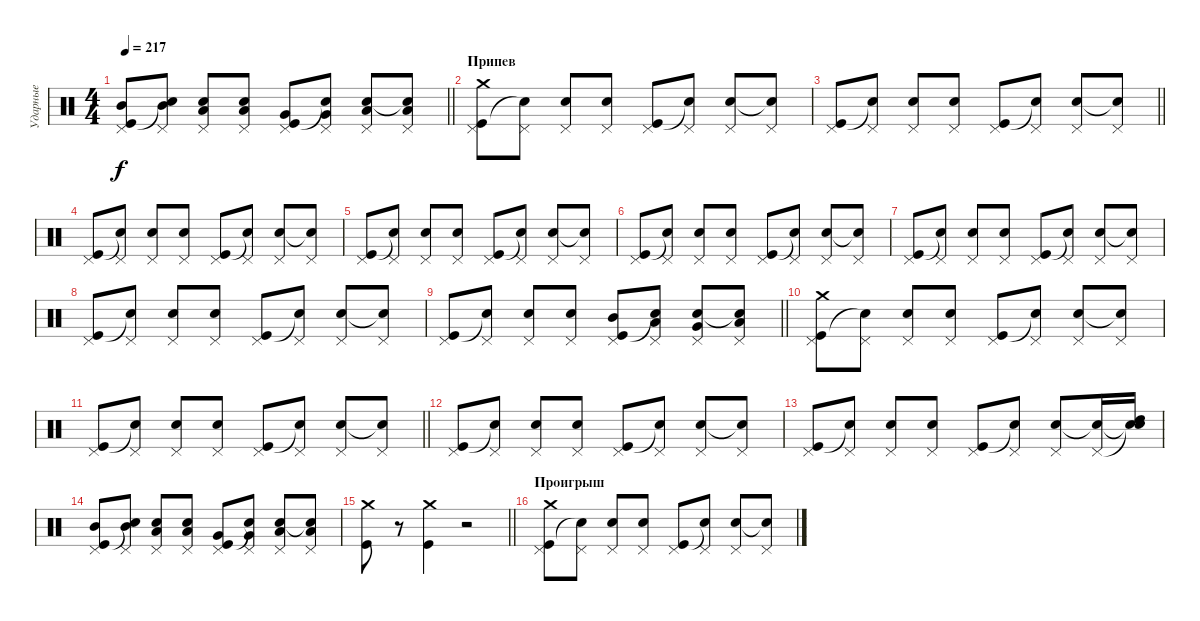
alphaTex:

\track ("Ударные" "Ударные") {instrument percussion}
\staff {score}
\articulation defaults
\ts (4 4)
\tempo 217
\clef neutral
\barLineRight lightlight
\ks c
("Pedal Hi-Hat (hit)" "Kick (hit)" "Mid Tom (hit)").8{dy f} ("Pedal Hi-Hat (hit)" "Snare (hit)"{t} "Mid Tom (hit)").8 ("Pedal Hi-Hat (hit)" "Snare (hit) 2" "Low Tom (hit)").8 ("Pedal Hi-Hat (hit)" "Snare (hit) 2" "Low Tom (hit)").8 ("Pedal Hi-Hat (hit)" "Kick (hit)" "Very Low Tom (hit)").8 ("Pedal Hi-Hat (hit)" "Snare (hit)"{t} "Very Low Tom (hit)").8 ("Pedal Hi-Hat (hit)" "Snare (hit) 2" "Low Floor Tom (hit)").8 ("Pedal Hi-Hat (hit)" "Snare (hit)"{t} "Low Floor Tom (hit)").8 |
\section ("" "Припев")
("Pedal Hi-Hat (hit)" "Kick (hit)" "Crash medium (hit)").8 ("Pedal Hi-Hat (hit)" "Snare (hit)"{t}).8 ("Pedal Hi-Hat (hit)" "Snare (hit) 2").8 ("Pedal Hi-Hat (hit)" "Snare (hit) 2").8 ("Pedal Hi-Hat (hit)" "Kick (hit)").8 ("Pedal Hi-Hat (hit)" "Snare (hit)"{t}).8 ("Pedal Hi-Hat (hit)" "Snare (hit) 2").8 ("Pedal Hi-Hat (hit)" "Snare (hit)"{t}).8 |
\barLineRight lightlight
("Pedal Hi-Hat (hit)" "Kick (hit)").8 ("Pedal Hi-Hat (hit)" "Snare (hit)"{t}).8 ("Pedal Hi-Hat (hit)" "Snare (hit) 2").8 ("Pedal Hi-Hat (hit)" "Snare (hit) 2").8 ("Pedal Hi-Hat (hit)" "Kick (hit)").8 ("Pedal Hi-Hat (hit)" "Snare (hit)"{t}).8 ("Pedal Hi-Hat (hit)" "Snare (hit) 2").8 ("Pedal Hi-Hat (hit)" "Snare (hit)"{t}).8 |
("Pedal Hi-Hat (hit)" "Kick (hit)").8 ("Pedal Hi-Hat (hit)" "Snare (hit)"{t}).8 ("Pedal Hi-Hat (hit)" "Snare (hit) 2").8 ("Pedal Hi-Hat (hit)" "Snare (hit) 2").8 ("Pedal Hi-Hat (hit)" "Kick (hit)").8 ("Pedal Hi-Hat (hit)" "Snare (hit)"{t}).8 ("Pedal Hi-Hat (hit)" "Snare (hit) 2").8 ("Pedal Hi-Hat (hit)" "Snare (hit)"{t}).8 |
("Pedal Hi-Hat (hit)" "Kick (hit)").8 ("Pedal Hi-Hat (hit)" "Snare (hit)"{t}).8 ("Pedal Hi-Hat (hit)" "Snare (hit) 2").8 ("Pedal Hi-Hat (hit)" "Snare (hit) 2").8 ("Pedal Hi-Hat (hit)" "Kick (hit)").8 ("Pedal Hi-Hat (hit)" "Snare (hit)"{t}).8 ("Pedal Hi-Hat (hit)" "Snare (hit) 2").8 ("Pedal Hi-Hat (hit)" "Snare (hit)"{t}).8 |
("Pedal Hi-Hat (hit)" "Kick (hit)").8 ("Pedal Hi-Hat (hit)" "Snare (hit)"{t}).8 ("Pedal Hi-Hat (hit)" "Snare (hit) 2").8 ("Pedal Hi-Hat (hit)" "Snare (hit) 2").8 ("Pedal Hi-Hat (hit)" "Kick (hit)").8 ("Pedal Hi-Hat (hit)" "Snare (hit)"{t}).8 ("Pedal Hi-Hat (hit)" "Snare (hit) 2").8 ("Pedal Hi-Hat (hit)" "Snare (hit)"{t}).8 |
("Pedal Hi-Hat (hit)" "Kick (hit)").8 ("Pedal Hi-Hat (hit)" "Snare (hit)"{t}).8 ("Pedal Hi-Hat (hit)" "Snare (hit) 2").8 ("Pedal Hi-Hat (hit)" "Snare (hit) 2").8 ("Pedal Hi-Hat (hit)" "Kick (hit)").8 ("Pedal Hi-Hat (hit)" "Snare (hit)"{t}).8 ("Pedal Hi-Hat (hit)" "Snare (hit) 2").8 ("Pedal Hi-Hat (hit)" "Snare (hit)"{t}).8 |
("Pedal Hi-Hat (hit)" "Kick (hit)").8 ("Pedal Hi-Hat (hit)" "Snare (hit)"{t}).8 ("Pedal Hi-Hat (hit)" "Snare (hit) 2").8 ("Pedal Hi-Hat (hit)" "Snare (hit) 2").8 ("Pedal Hi-Hat (hit)" "Kick (hit)").8 ("Pedal Hi-Hat (hit)" "Snare (hit)"{t}).8 ("Pedal Hi-Hat (hit)" "Snare (hit) 2").8 ("Pedal Hi-Hat (hit)" "Snare (hit)"{t}).8 |
\barLineRight lightlight
("Pedal Hi-Hat (hit)" "Kick (hit)").8 ("Pedal Hi-Hat (hit)" "Snare (hit)"{t}).8 ("Pedal Hi-Hat (hit)" "Snare (hit) 2").8 ("Pedal Hi-Hat (hit)" "Snare (hit) 2").8 ("Pedal Hi-Hat (hit)" "Kick (hit)" "Mid Tom (hit)").8 ("Pedal Hi-Hat (hit)" "Snare (hit)"{t} "Low Tom (hit)").8 ("Pedal Hi-Hat (hit)" "Snare (hit) 2" "Very Low Tom (hit)").8 ("Pedal Hi-Hat (hit)" "Snare (hit)"{t} "Low Floor Tom (hit)").8 |
("Pedal Hi-Hat (hit)" "Kick (hit)" "Crash medium (hit)").8 ("Pedal Hi-Hat (hit)" "Snare (hit)"{t}).8 ("Pedal Hi-Hat (hit)" "Snare (hit) 2").8 ("Pedal Hi-Hat (hit)" "Snare (hit) 2").8 ("Pedal Hi-Hat (hit)" "Kick (hit)").8 ("Pedal Hi-Hat (hit)" "Snare (hit)"{t}).8 ("Pedal Hi-Hat (hit)" "Snare (hit) 2").8 ("Pedal Hi-Hat (hit)" "Snare (hit)"{t}).8 |
\barLineRight lightlight
("Pedal Hi-Hat (hit)" "Kick (hit)").8 ("Pedal Hi-Hat (hit)" "Snare (hit)"{t}).8 ("Pedal Hi-Hat (hit)" "Snare (hit) 2").8 ("Pedal Hi-Hat (hit)" "Snare (hit) 2").8 ("Pedal Hi-Hat (hit)" "Kick (hit)").8 ("Pedal Hi-Hat (hit)" "Snare (hit)"{t}).8 ("Pedal Hi-Hat (hit)" "Snare (hit) 2").8 ("Pedal Hi-Hat (hit)" "Snare (hit)"{t}).8 |
("Pedal Hi-Hat (hit)" "Kick (hit)").8 ("Pedal Hi-Hat (hit)" "Snare (hit)"{t}).8 ("Pedal Hi-Hat (hit)" "Snare (hit) 2").8 ("Pedal Hi-Hat (hit)" "Snare (hit) 2").8 ("Pedal Hi-Hat (hit)" "Kick (hit)").8 ("Pedal Hi-Hat (hit)" "Snare (hit)"{t}).8 ("Pedal Hi-Hat (hit)" "Snare (hit) 2").8 ("Pedal Hi-Hat (hit)" "Snare (hit)"{t}).8 |
("Pedal Hi-Hat (hit)" "Kick (hit)").8 ("Pedal Hi-Hat (hit)" "Snare (hit)"{t}).8 ("Pedal Hi-Hat (hit)" "Snare (hit) 2").8 ("Pedal Hi-Hat (hit)" "Snare (hit) 2").8 ("Pedal Hi-Hat (hit)" "Kick (hit)").8 ("Pedal Hi-Hat (hit)" "Snare (hit)"{t}).8 ("Pedal Hi-Hat (hit)" "Snare (hit) 2").8 ("Pedal Hi-Hat (hit)" "Snare (hit)"{t}).16 ("Snare (hit)"{t} "Snare (hit)"{t} "High Tom (hit)").16 |
("Pedal Hi-Hat (hit)" "Kick (hit)" "Mid Tom (hit)").8 ("Pedal Hi-Hat (hit)" "Snare (hit)"{t} "Mid Tom (hit)").8 ("Pedal Hi-Hat (hit)" "Snare (hit) 2" "Low Tom (hit)").8 ("Pedal Hi-Hat (hit)" "Snare (hit) 2" "Low Tom (hit)").8 ("Pedal Hi-Hat (hit)" "Kick (hit)" "Very Low Tom (hit)").8 ("Pedal Hi-Hat (hit)" "Snare (hit)"{t} "Very Low Tom (hit)").8 ("Pedal Hi-Hat (hit)" "Snare (hit) 2" "Low Floor Tom (hit)").8 ("Pedal Hi-Hat (hit)" "Snare (hit)"{t} "Low Floor Tom (hit)").8 |
\barLineRight lightlight
("Kick (hit)" "Crash medium (hit)").8 r.8 ("Kick (hit)" "Crash medium (hit)").4 r.2 |
\section ("" "Проигрыш")
("Pedal Hi-Hat (hit)" "Kick (hit)" "Crash medium (hit)").8 ("Pedal Hi-Hat (hit)" "Snare (hit)"{t}).8 ("Pedal Hi-Hat (hit)" "Snare (hit) 2").8 ("Pedal Hi-Hat (hit)" "Snare (hit) 2").8 ("Pedal Hi-Hat (hit)" "Kick (hit)").8 ("Pedal Hi-Hat (hit)" "Snare (hit)"{t}).8 ("Pedal Hi-Hat (hit)" "Snare (hit) 2").8 ("Pedal Hi-Hat (hit)" "Snare (hit)"{t}).8
